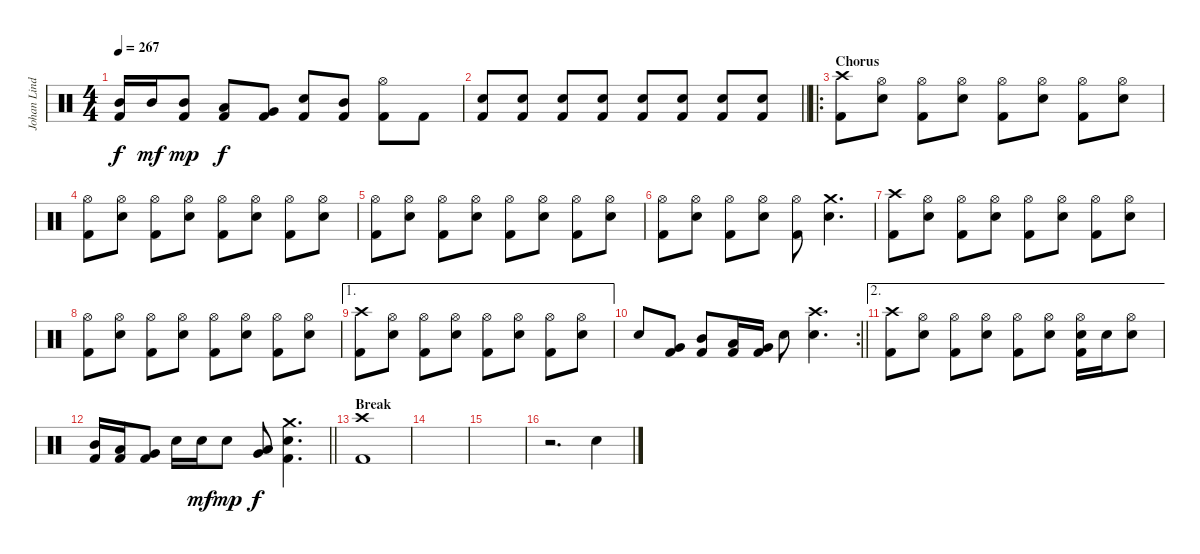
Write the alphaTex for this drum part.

\track ("Johan Lindstrand" "Johan Lind") {instrument percussion}
\staff {score}
\articulation defaults
\ts (4 4)
\tempo 267
\clef neutral
\ks c
("Mid Tom (hit)" "Kick (hit) 2").16{dy f} "Mid Tom (hit)".16{dy mf} ("Mid Tom (hit)" "Kick (hit) 2").8{dy mp} ("Low Tom (hit)" "Kick (hit) 2").8{dy f} ("Very Low Tom (hit)" "Kick (hit) 2").8 ("Electric Snare (hit)" "Kick (hit) 2").8 ("Mid Tom (hit)" "Kick (hit) 2").8 ("Hi-Hat (open)" "Kick (hit) 2").8 "Kick (hit) 2".8 |
\barLineRight lightlight
("Electric Snare (hit)" "Kick (hit) 2").8 ("Electric Snare (hit)" "Kick (hit) 2").8 ("Electric Snare (hit)" "Kick (hit) 2").8 ("Electric Snare (hit)" "Kick (hit) 2").8 ("Electric Snare (hit)" "Kick (hit) 2").8 ("Electric Snare (hit)" "Kick (hit) 2").8 ("Electric Snare (hit)" "Kick (hit) 2").8 ("Electric Snare (hit)" "Kick (hit) 2").8 |
\ro
\section ("" "Chorus")
("Crash high (hit)" "Kick (hit) 2").8 ("Hi-Hat (open)" "Electric Snare (hit)").8 ("Hi-Hat (open)" "Kick (hit) 2").8 ("Hi-Hat (open)" "Electric Snare (hit)").8 ("Hi-Hat (open)" "Kick (hit) 2").8 ("Hi-Hat (open)" "Electric Snare (hit)").8 ("Hi-Hat (open)" "Kick (hit) 2").8 ("Hi-Hat (open)" "Electric Snare (hit)").8 |
("Hi-Hat (open)" "Kick (hit) 2").8 ("Hi-Hat (open)" "Electric Snare (hit)").8 ("Hi-Hat (open)" "Kick (hit) 2").8 ("Hi-Hat (open)" "Electric Snare (hit)").8 ("Hi-Hat (open)" "Kick (hit) 2").8 ("Hi-Hat (open)" "Electric Snare (hit)").8 ("Hi-Hat (open)" "Kick (hit) 2").8 ("Hi-Hat (open)" "Electric Snare (hit)").8 |
("Hi-Hat (open)" "Kick (hit) 2").8 ("Hi-Hat (open)" "Electric Snare (hit)").8 ("Hi-Hat (open)" "Kick (hit) 2").8 ("Hi-Hat (open)" "Electric Snare (hit)").8 ("Hi-Hat (open)" "Kick (hit) 2").8 ("Hi-Hat (open)" "Electric Snare (hit)").8 ("Hi-Hat (open)" "Kick (hit) 2").8 ("Hi-Hat (open)" "Electric Snare (hit)").8 |
("Hi-Hat (open)" "Kick (hit) 2").8 ("Hi-Hat (open)" "Electric Snare (hit)").8 ("Hi-Hat (open)" "Kick (hit) 2").8 ("Hi-Hat (open)" "Electric Snare (hit)").8 ("Hi-Hat (open)" "Kick (hit) 2").8 ("Crash medium (hit)" "Electric Snare (hit)").4{d} |
("Crash high (hit)" "Kick (hit) 2").8 ("Hi-Hat (open)" "Electric Snare (hit)").8 ("Hi-Hat (open)" "Kick (hit) 2").8 ("Hi-Hat (open)" "Electric Snare (hit)").8 ("Hi-Hat (open)" "Kick (hit) 2").8 ("Hi-Hat (open)" "Electric Snare (hit)").8 ("Hi-Hat (open)" "Kick (hit) 2").8 ("Hi-Hat (open)" "Electric Snare (hit)").8 |
("Hi-Hat (open)" "Kick (hit) 2").8 ("Hi-Hat (open)" "Electric Snare (hit)").8 ("Hi-Hat (open)" "Kick (hit) 2").8 ("Hi-Hat (open)" "Electric Snare (hit)").8 ("Hi-Hat (open)" "Kick (hit) 2").8 ("Hi-Hat (open)" "Electric Snare (hit)").8 ("Hi-Hat (open)" "Kick (hit) 2").8 ("Hi-Hat (open)" "Electric Snare (hit)").8 |
\ae 1
("Crash high (hit)" "Kick (hit) 2").8 ("Hi-Hat (open)" "Electric Snare (hit)").8 ("Hi-Hat (open)" "Kick (hit) 2").8 ("Hi-Hat (open)" "Electric Snare (hit)").8 ("Hi-Hat (open)" "Kick (hit) 2").8 ("Hi-Hat (open)" "Electric Snare (hit)").8 ("Hi-Hat (open)" "Kick (hit) 2").8 ("Hi-Hat (open)" "Electric Snare (hit)").8 |
\rc 2
\barLineRight lightlight "Electric Snare (hit)".8
("Very Low Tom (hit)" "Kick (hit) 2").8 ("Mid Tom (hit)" "Kick (hit) 2").8 ("Low Tom (hit)" "Kick (hit) 2").16 ("Very Low Tom (hit)" "Kick (hit) 2").16 "Electric Snare (hit)".8 ("Crash high (hit)" "Electric Snare (hit)").4{d} |
\ae 2
("Crash high (hit)" "Kick (hit) 2").8 ("Hi-Hat (open)" "Electric Snare (hit)").8 ("Hi-Hat (open)" "Kick (hit) 2").8 ("Hi-Hat (open)" "Electric Snare (hit)").8 ("Hi-Hat (open)" "Kick (hit) 2").8 ("Hi-Hat (open)" "Electric Snare (hit)").8 ("Hi-Hat (open)" "Electric Snare (hit)" "Kick (hit) 2").16 "Electric Snare (hit)".16 ("Hi-Hat (open)" "Electric Snare (hit)").8 |
\barLineRight lightlight
("Mid Tom (hit)" "Kick (hit) 2").16 ("Low Tom (hit)" "Kick (hit) 2").16 ("Very Low Tom (hit)" "Kick (hit) 2").8 "Electric Snare (hit)".16 "Electric Snare (hit)".16{dy mf} "Electric Snare (hit)".8{dy mp} ("Low Floor Tom (hit)" "Very Low Tom (hit)").8{dy f} ("Crash medium (hit)" "Electric Snare (hit)" "Kick (hit) 2").4{d} |
\section ("" "Break")
("Crash high (hit)" "Kick (hit) 2").1 |
|
|
r.2{d} "Electric Snare (hit)".4
